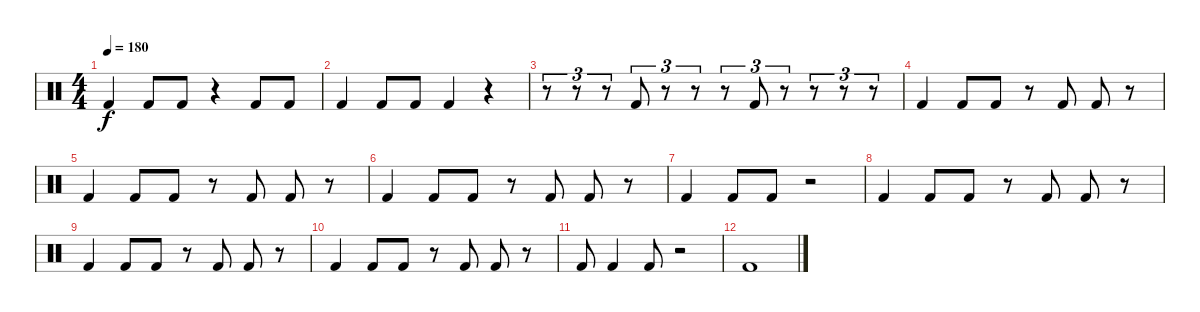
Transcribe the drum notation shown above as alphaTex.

\track "" {instrument percussion}
\staff {score}
\articulation defaults
\ts (4 4)
\tempo 180
\clef neutral
\ks c "Kick (hit) 2".4{dy f} "Kick (hit) 2".8 "Kick (hit) 2".8
r.4 "Kick (hit) 2".8 "Kick (hit) 2".8 |
"Kick (hit) 2".4 "Kick (hit) 2".8 "Kick (hit) 2".8 "Kick (hit) 2".4 r.4 |
r.8{tu (3 2)} r.8{tu (3 2)} r.8{tu (3 2)} "Kick (hit) 2".8{tu (3 2)} r.8{tu (3 2)} r.8{tu (3 2)} r.8{tu (3 2)} "Kick (hit) 2".8{tu (3 2)} r.8{tu (3 2)} r.8{tu (3 2)} r.8{tu (3 2)} r.8{tu (3 2)} |
"Kick (hit) 2".4 "Kick (hit) 2".8 "Kick (hit) 2".8 r.8 "Kick (hit) 2".8 "Kick (hit) 2".8 r.8 |
"Kick (hit) 2".4 "Kick (hit) 2".8 "Kick (hit) 2".8 r.8 "Kick (hit) 2".8 "Kick (hit) 2".8 r.8 |
"Kick (hit) 2".4 "Kick (hit) 2".8 "Kick (hit) 2".8 r.8 "Kick (hit) 2".8 "Kick (hit) 2".8 r.8 |
"Kick (hit) 2".4 "Kick (hit) 2".8 "Kick (hit) 2".8 r.2 |
"Kick (hit) 2".4 "Kick (hit) 2".8 "Kick (hit) 2".8 r.8 "Kick (hit) 2".8 "Kick (hit) 2".8 r.8 |
"Kick (hit) 2".4 "Kick (hit) 2".8 "Kick (hit) 2".8 r.8 "Kick (hit) 2".8 "Kick (hit) 2".8 r.8 |
"Kick (hit) 2".4 "Kick (hit) 2".8 "Kick (hit) 2".8 r.8 "Kick (hit) 2".8 "Kick (hit) 2".8 r.8 |
"Kick (hit) 2".8 "Kick (hit) 2".4 "Kick (hit) 2".8 r.2 |
"Kick (hit) 2".1
